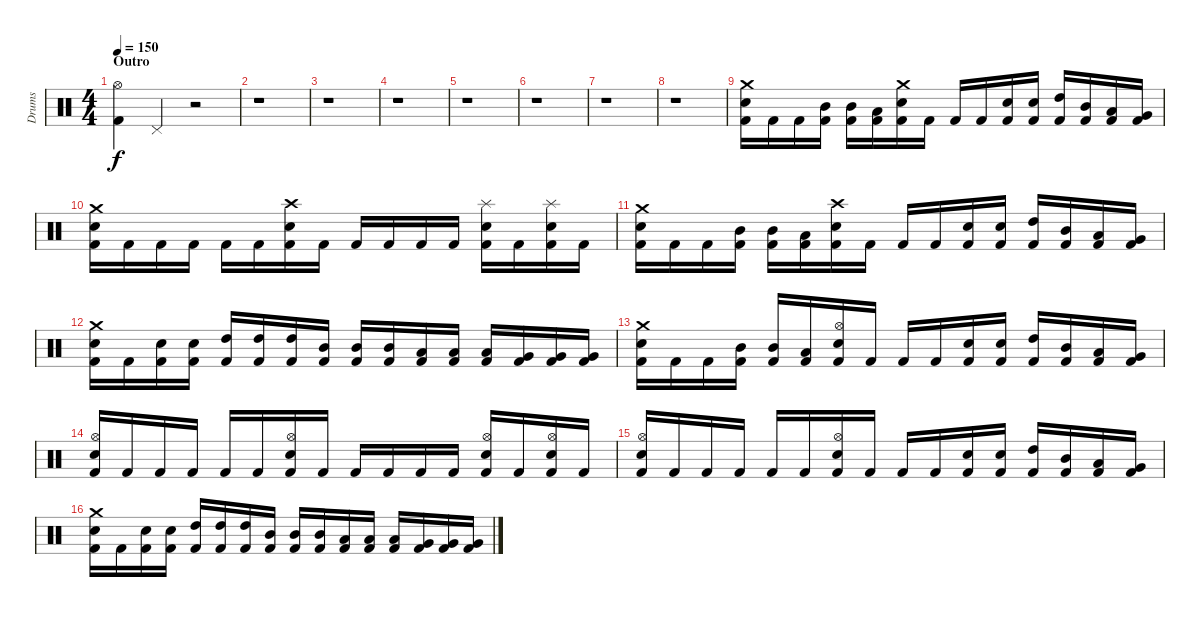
\track ("Drums" "Drums") {instrument percussion}
\staff {score}
\articulation defaults
\ts (4 4)
\section ("" "Outro")
\tempo 150
\clef neutral
\ks c
("Kick (hit) 2" "Hi-Hat (open)").4{dy f} "Pedal Hi-Hat (hit)".4 r.2 |
r.1 |
r.1 |
r.1 |
r.1 |
r.1 |
r.1 |
r.1 |
("Kick (hit) 2" "Electric Snare (hit)" "Crash medium (hit)").16 "Kick (hit) 2".16 "Kick (hit) 2".16 ("Kick (hit) 2" "Mid Tom (hit)").16 ("Kick (hit) 2" "Mid Tom (hit)").16 ("Kick (hit) 2" "Low Tom (hit)").16 ("Kick (hit) 2" "Electric Snare (hit)" "Crash medium (hit)").16 "Kick (hit) 2".16 "Kick (hit) 2".16 "Kick (hit) 2".16 ("Kick (hit) 2" "Electric Snare (hit)").16 ("Kick (hit) 2" "Electric Snare (hit)").16 ("Kick (hit) 2" "High Tom (hit)").16 ("Kick (hit) 2" "Mid Tom (hit)").16 ("Kick (hit) 2" "Low Tom (hit)").16 ("Kick (hit) 2" "Very Low Tom (hit)").16 |
("Kick (hit) 2" "Electric Snare (hit)" "Crash medium (hit)").16 "Kick (hit) 2".16 "Kick (hit) 2".16 "Kick (hit) 2".16 "Kick (hit) 2".16 "Kick (hit) 2".16 ("Kick (hit) 2" "Electric Snare (hit)" "Crash high (hit)").16 "Kick (hit) 2".16 "Kick (hit) 2".16 "Kick (hit) 2".16 "Kick (hit) 2".16 "Kick (hit) 2".16 ("Kick (hit) 2" "Electric Snare (hit)" "Splash (hit)").16 "Kick (hit) 2".16 ("Kick (hit) 2" "Electric Snare (hit)" "Splash (hit)").16 "Kick (hit) 2".16 |
("Kick (hit) 2" "Electric Snare (hit)" "Crash medium (hit)").16 "Kick (hit) 2".16 "Kick (hit) 2".16 ("Kick (hit) 2" "Mid Tom (hit)").16 ("Kick (hit) 2" "Mid Tom (hit)").16 ("Kick (hit) 2" "Low Tom (hit)").16 ("Kick (hit) 2" "Electric Snare (hit)" "Crash high (hit)").16 "Kick (hit) 2".16 "Kick (hit) 2".16 "Kick (hit) 2".16 ("Kick (hit) 2" "Electric Snare (hit)").16 ("Kick (hit) 2" "Electric Snare (hit)").16 ("Kick (hit) 2" "High Tom (hit)").16 ("Kick (hit) 2" "Mid Tom (hit)").16 ("Kick (hit) 2" "Low Tom (hit)").16 ("Kick (hit) 2" "Very Low Tom (hit)").16 |
("Kick (hit) 2" "Electric Snare (hit)" "Crash medium (hit)").16 "Kick (hit) 2".16 ("Kick (hit) 2" "Electric Snare (hit)").16 ("Kick (hit) 2" "Electric Snare (hit)").16 ("Kick (hit) 2" "High Tom (hit)").16 ("Kick (hit) 2" "High Tom (hit)").16 ("Kick (hit) 2" "High Tom (hit)").16 ("Kick (hit) 2" "Mid Tom (hit)").16 ("Kick (hit) 2" "Mid Tom (hit)").16 ("Kick (hit) 2" "Mid Tom (hit)").16 ("Kick (hit) 2" "Low Tom (hit)").16 ("Kick (hit) 2" "Low Tom (hit)").16 ("Kick (hit) 2" "Low Tom (hit)").16 ("Kick (hit) 2" "Very Low Tom (hit)").16 ("Kick (hit) 2" "Very Low Tom (hit)").16 ("Kick (hit) 2" "Very Low Tom (hit)").16 |
("Kick (hit) 2" "Electric Snare (hit)" "Crash medium (hit)").16 "Kick (hit) 2".16 "Kick (hit) 2".16 ("Kick (hit) 2" "Mid Tom (hit)").16 ("Kick (hit) 2" "Mid Tom (hit)").16 ("Kick (hit) 2" "Low Tom (hit)").16 ("Kick (hit) 2" "Electric Snare (hit)" "Hi-Hat (open)").16 "Kick (hit) 2".16 "Kick (hit) 2".16 "Kick (hit) 2".16 ("Kick (hit) 2" "Electric Snare (hit)").16 ("Kick (hit) 2" "Electric Snare (hit)").16 ("Kick (hit) 2" "High Tom (hit)").16 ("Kick (hit) 2" "Mid Tom (hit)").16 ("Kick (hit) 2" "Low Tom (hit)").16 ("Kick (hit) 2" "Very Low Tom (hit)").16 |
("Kick (hit) 2" "Electric Snare (hit)" "Hi-Hat (open)").16 "Kick (hit) 2".16 "Kick (hit) 2".16 "Kick (hit) 2".16 "Kick (hit) 2".16 "Kick (hit) 2".16 ("Kick (hit) 2" "Electric Snare (hit)" "Hi-Hat (open)").16 "Kick (hit) 2".16 "Kick (hit) 2".16 "Kick (hit) 2".16 "Kick (hit) 2".16 "Kick (hit) 2".16 ("Kick (hit) 2" "Electric Snare (hit)" "Hi-Hat (open)").16 "Kick (hit) 2".16 ("Kick (hit) 2" "Electric Snare (hit)" "Hi-Hat (open)").16 "Kick (hit) 2".16 |
("Kick (hit) 2" "Electric Snare (hit)" "Hi-Hat (open)").16 "Kick (hit) 2".16 "Kick (hit) 2".16 "Kick (hit) 2".16 "Kick (hit) 2".16 "Kick (hit) 2".16 ("Kick (hit) 2" "Electric Snare (hit)" "Hi-Hat (open)").16 "Kick (hit) 2".16 "Kick (hit) 2".16 "Kick (hit) 2".16 ("Kick (hit) 2" "Electric Snare (hit)").16 ("Kick (hit) 2" "Electric Snare (hit)").16 ("Kick (hit) 2" "High Tom (hit)").16 ("Kick (hit) 2" "Mid Tom (hit)").16 ("Kick (hit) 2" "Low Tom (hit)").16 ("Kick (hit) 2" "Very Low Tom (hit)").16 |
("Kick (hit) 2" "Electric Snare (hit)" "Crash medium (hit)").16 "Kick (hit) 2".16 ("Kick (hit) 2" "Electric Snare (hit)").16 ("Kick (hit) 2" "Electric Snare (hit)").16 ("Kick (hit) 2" "High Tom (hit)").16 ("Kick (hit) 2" "High Tom (hit)").16 ("Kick (hit) 2" "High Tom (hit)").16 ("Kick (hit) 2" "Mid Tom (hit)").16 ("Kick (hit) 2" "Mid Tom (hit)").16 ("Kick (hit) 2" "Mid Tom (hit)").16 ("Kick (hit) 2" "Low Tom (hit)").16 ("Kick (hit) 2" "Low Tom (hit)").16 ("Kick (hit) 2" "Low Tom (hit)").16 ("Kick (hit) 2" "Very Low Tom (hit)").16 ("Kick (hit) 2" "Very Low Tom (hit)").16 ("Kick (hit) 2" "Very Low Tom (hit)").16
